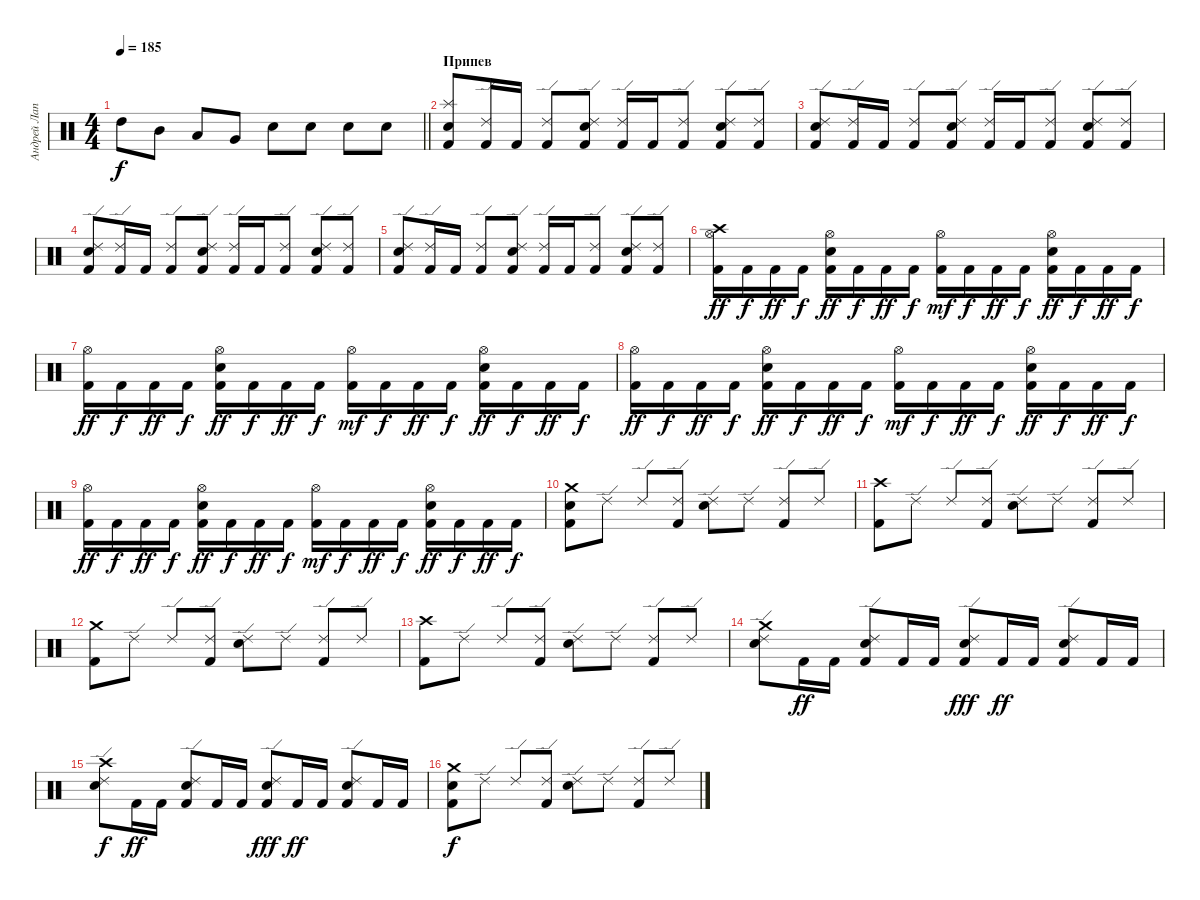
\track ("Андрей Лаптев" "Андрей Лап") {instrument percussion}
\staff {score}
\articulation defaults
\ts (4 4)
\tempo 185
\clef neutral
\barLineRight lightlight
\ks c "High Tom (hit)".8{dy f} "Mid Tom (hit)".8 "Low Tom (hit)".8 "Very Low Tom (hit)".8 "Electric Snare (hit)".8 "Electric Snare (hit)".8 "Electric Snare (hit)".8 "Electric Snare (hit)".8
|
\section ("" "Припев")
("Splash (hit)" "Electric Snare (hit)" "Kick (hit) 2").8 ("Kick (hit) 2" "Ride (edge) 2").16 "Kick (hit) 2".16 ("Ride (edge) 2" "Kick (hit) 2").8 ("Ride (edge) 2" "Electric Snare (hit)" "Kick (hit) 2").8 ("Kick (hit) 2" "Ride (edge) 2").16 "Kick (hit) 2".16 ("Ride (edge) 2" "Kick (hit) 2").8 ("Ride (edge) 2" "Electric Snare (hit)" "Kick (hit) 2").8 ("Ride (edge) 2" "Kick (hit) 2").8 |
("Ride (edge) 2" "Electric Snare (hit)" "Kick (hit) 2").8 ("Kick (hit) 2" "Ride (edge) 2").16 "Kick (hit) 2".16 ("Ride (edge) 2" "Kick (hit) 2").8 ("Ride (edge) 2" "Electric Snare (hit)" "Kick (hit) 2").8 ("Kick (hit) 2" "Ride (edge) 2").16 "Kick (hit) 2".16 ("Ride (edge) 2" "Kick (hit) 2").8 ("Ride (edge) 2" "Electric Snare (hit)" "Kick (hit) 2").8 ("Ride (edge) 2" "Kick (hit) 2").8 |
("Ride (edge) 2" "Electric Snare (hit)" "Kick (hit) 2").8 ("Kick (hit) 2" "Ride (edge) 2").16 "Kick (hit) 2".16 ("Ride (edge) 2" "Kick (hit) 2").8 ("Ride (edge) 2" "Electric Snare (hit)" "Kick (hit) 2").8 ("Kick (hit) 2" "Ride (edge) 2").16 "Kick (hit) 2".16 ("Ride (edge) 2" "Kick (hit) 2").8 ("Ride (edge) 2" "Electric Snare (hit)" "Kick (hit) 2").8 ("Ride (edge) 2" "Kick (hit) 2").8 |
("Ride (edge) 2" "Electric Snare (hit)" "Kick (hit) 2").8 ("Kick (hit) 2" "Ride (edge) 2").16 "Kick (hit) 2".16 ("Ride (edge) 2" "Kick (hit) 2").8 ("Ride (edge) 2" "Electric Snare (hit)" "Kick (hit) 2").8 ("Kick (hit) 2" "Ride (edge) 2").16 "Kick (hit) 2".16 ("Ride (edge) 2" "Kick (hit) 2").8 ("Ride (edge) 2" "Electric Snare (hit)" "Kick (hit) 2").8 ("Ride (edge) 2" "Kick (hit) 2").8 |
("Crash high (hit)" "Kick (hit) 2" "Hi-Hat (open)").16{dy ff} "Kick (hit) 2".16{dy f} "Kick (hit) 2".16{dy ff} "Kick (hit) 2".16{dy f} ("Hi-Hat (open)" "Electric Snare (hit)" "Kick (hit) 2").16{dy ff} "Kick (hit) 2".16{dy f} "Kick (hit) 2".16{dy ff} "Kick (hit) 2".16{dy f} ("Kick (hit) 2" "Hi-Hat (open)").16{dy mf} "Kick (hit) 2".16{dy f} "Kick (hit) 2".16{dy ff} "Kick (hit) 2".16{dy f} ("Electric Snare (hit)" "Hi-Hat (open)" "Kick (hit) 2").16{dy ff} "Kick (hit) 2".16{dy f} "Kick (hit) 2".16{dy ff} "Kick (hit) 2".16{dy f} |
("Kick (hit) 2" "Hi-Hat (open)").16{dy ff} "Kick (hit) 2".16{dy f} "Kick (hit) 2".16{dy ff} "Kick (hit) 2".16{dy f} ("Hi-Hat (open)" "Electric Snare (hit)" "Kick (hit) 2").16{dy ff} "Kick (hit) 2".16{dy f} "Kick (hit) 2".16{dy ff} "Kick (hit) 2".16{dy f} ("Kick (hit) 2" "Hi-Hat (open)").16{dy mf} "Kick (hit) 2".16{dy f} "Kick (hit) 2".16{dy ff} "Kick (hit) 2".16{dy f} ("Electric Snare (hit)" "Hi-Hat (open)" "Kick (hit) 2").16{dy ff} "Kick (hit) 2".16{dy f} "Kick (hit) 2".16{dy ff} "Kick (hit) 2".16{dy f} |
("Kick (hit) 2" "Hi-Hat (open)").16{dy ff} "Kick (hit) 2".16{dy f} "Kick (hit) 2".16{dy ff} "Kick (hit) 2".16{dy f} ("Hi-Hat (open)" "Electric Snare (hit)" "Kick (hit) 2").16{dy ff} "Kick (hit) 2".16{dy f} "Kick (hit) 2".16{dy ff} "Kick (hit) 2".16{dy f} ("Kick (hit) 2" "Hi-Hat (open)").16{dy mf} "Kick (hit) 2".16{dy f} "Kick (hit) 2".16{dy ff} "Kick (hit) 2".16{dy f} ("Electric Snare (hit)" "Hi-Hat (open)" "Kick (hit) 2").16{dy ff} "Kick (hit) 2".16{dy f} "Kick (hit) 2".16{dy ff} "Kick (hit) 2".16{dy f} |
("Kick (hit) 2" "Hi-Hat (open)").16{dy ff} "Kick (hit) 2".16{dy f} "Kick (hit) 2".16{dy ff} "Kick (hit) 2".16{dy f} ("Hi-Hat (open)" "Electric Snare (hit)" "Kick (hit) 2").16{dy ff} "Kick (hit) 2".16{dy f} "Kick (hit) 2".16{dy ff} "Kick (hit) 2".16{dy f} ("Kick (hit) 2" "Hi-Hat (open)").16{dy mf} "Kick (hit) 2".16{dy f} "Kick (hit) 2".16{dy ff} "Kick (hit) 2".16{dy f} ("Electric Snare (hit)" "Hi-Hat (open)" "Kick (hit) 2").16{dy ff} "Kick (hit) 2".16{dy f} "Kick (hit) 2".16{dy ff} "Kick (hit) 2".16{dy f} |
("Electric Snare (hit)" "Crash medium (hit)" "Kick (hit) 2").8 "Ride (edge) 2".8 "Ride (edge) 2".8 ("Ride (edge) 2" "Kick (hit) 2").8 ("Ride (edge) 2" "Electric Snare (hit)").8 "Ride (edge) 2".8 ("Ride (edge) 2" "Kick (hit) 2").8 "Ride (edge) 2".8 |
("Kick (hit) 2" "Crash high (hit)").8 "Ride (edge) 2".8 "Ride (edge) 2".8 ("Ride (edge) 2" "Kick (hit) 2").8 ("Ride (edge) 2" "Electric Snare (hit)").8 "Ride (edge) 2".8 ("Ride (edge) 2" "Kick (hit) 2").8 "Ride (edge) 2".8 |
("Crash medium (hit)" "Kick (hit) 2").8 "Ride (edge) 2".8 "Ride (edge) 2".8 ("Ride (edge) 2" "Kick (hit) 2").8 ("Ride (edge) 2" "Electric Snare (hit)").8 "Ride (edge) 2".8 ("Ride (edge) 2" "Kick (hit) 2").8 "Ride (edge) 2".8 |
("Kick (hit) 2" "Crash high (hit)").8 "Ride (edge) 2".8 "Ride (edge) 2".8 ("Ride (edge) 2" "Kick (hit) 2").8 ("Ride (edge) 2" "Electric Snare (hit)").8 "Ride (edge) 2".8 ("Ride (edge) 2" "Kick (hit) 2").8 "Ride (edge) 2".8 |
("Ride (edge) 2" "Crash medium (hit)" "Electric Snare (hit)").8 "Kick (hit) 2".16{dy ff} "Kick (hit) 2".16 ("Kick (hit) 2" "Electric Snare (hit)" "Ride (edge) 2").8 "Kick (hit) 2".16 "Kick (hit) 2".16 ("Kick (hit) 2" "Ride (edge) 2" "Electric Snare (hit)").8{dy fff} "Kick (hit) 2".16{dy ff} "Kick (hit) 2".16 ("Ride (edge) 2" "Electric Snare (hit)" "Kick (hit) 2").8 "Kick (hit) 2".16 "Kick (hit) 2".16 |
("Ride (edge) 2" "Crash high (hit)" "Electric Snare (hit)").8{dy f} "Kick (hit) 2".16{dy ff} "Kick (hit) 2".16 ("Kick (hit) 2" "Electric Snare (hit)" "Ride (edge) 2").8 "Kick (hit) 2".16 "Kick (hit) 2".16 ("Kick (hit) 2" "Ride (edge) 2" "Electric Snare (hit)").8{dy fff} "Kick (hit) 2".16{dy ff} "Kick (hit) 2".16 ("Ride (edge) 2" "Electric Snare (hit)" "Kick (hit) 2").8 "Kick (hit) 2".16 "Kick (hit) 2".16 |
("Electric Snare (hit)" "Crash medium (hit)" "Kick (hit) 2").8{dy f} "Ride (edge) 2".8 "Ride (edge) 2".8 ("Ride (edge) 2" "Kick (hit) 2").8 ("Ride (edge) 2" "Electric Snare (hit)").8 "Ride (edge) 2".8 ("Ride (edge) 2" "Kick (hit) 2").8 "Ride (edge) 2".8
